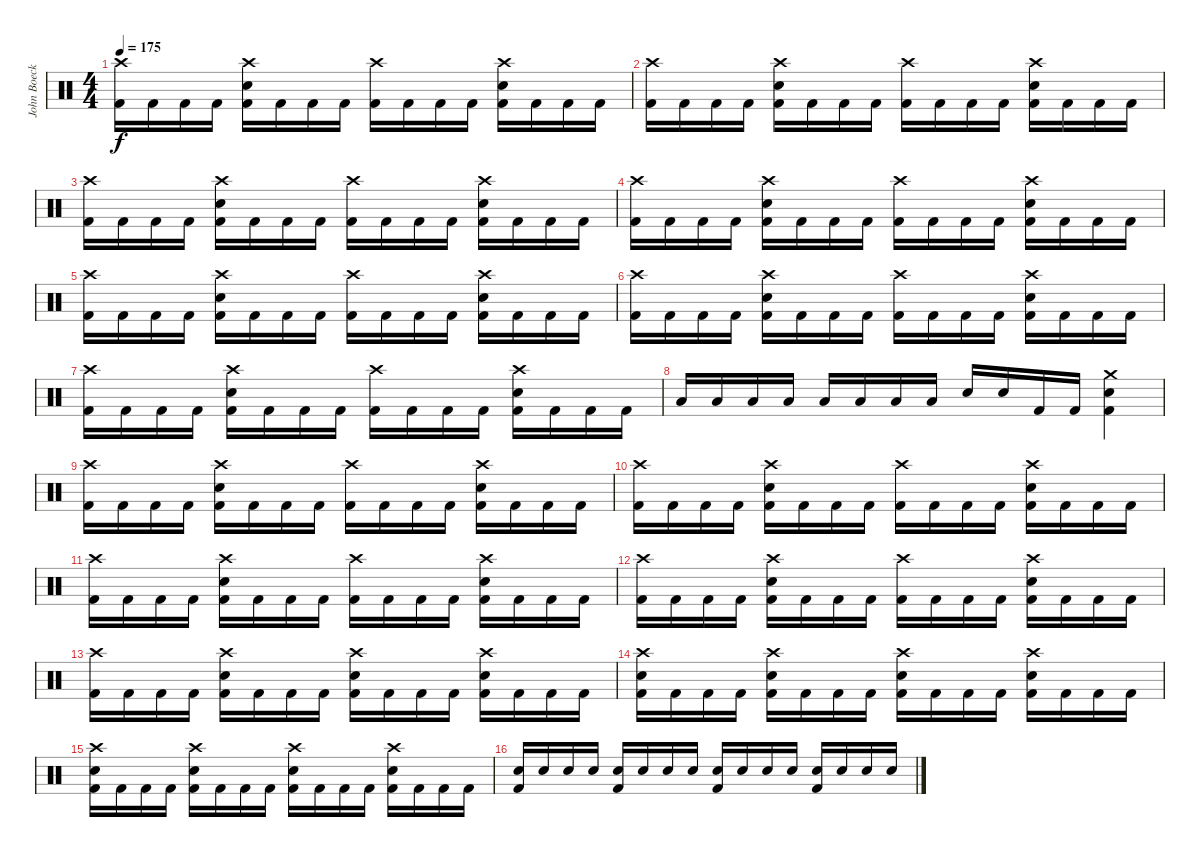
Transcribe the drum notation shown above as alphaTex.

\track ("John Boecklin (Drums)" "John Boeck") {instrument percussion}
\staff {score}
\articulation defaults
\ts (4 4)
\tempo 175
\clef neutral
\ks c
("Crash high (hit)" "Kick (hit) 2").16{dy f} "Kick (hit) 2".16 "Kick (hit) 2".16 "Kick (hit) 2".16 ("Crash high (hit)" "Snare (hit) 2" "Kick (hit) 2").16 "Kick (hit) 2".16 "Kick (hit) 2".16 "Kick (hit) 2".16 ("Crash high (hit)" "Kick (hit) 2").16 "Kick (hit) 2".16 "Kick (hit) 2".16 "Kick (hit) 2".16 ("Crash high (hit)" "Snare (hit) 2" "Kick (hit) 2").16 "Kick (hit) 2".16 "Kick (hit) 2".16 "Kick (hit) 2".16 |
("Crash high (hit)" "Kick (hit) 2").16 "Kick (hit) 2".16 "Kick (hit) 2".16 "Kick (hit) 2".16 ("Crash high (hit)" "Snare (hit) 2" "Kick (hit) 2").16 "Kick (hit) 2".16 "Kick (hit) 2".16 "Kick (hit) 2".16 ("Crash high (hit)" "Kick (hit) 2").16 "Kick (hit) 2".16 "Kick (hit) 2".16 "Kick (hit) 2".16 ("Crash high (hit)" "Snare (hit) 2" "Kick (hit) 2").16 "Kick (hit) 2".16 "Kick (hit) 2".16 "Kick (hit) 2".16 |
("Crash high (hit)" "Kick (hit) 2").16 "Kick (hit) 2".16 "Kick (hit) 2".16 "Kick (hit) 2".16 ("Crash high (hit)" "Snare (hit) 2" "Kick (hit) 2").16 "Kick (hit) 2".16 "Kick (hit) 2".16 "Kick (hit) 2".16 ("Crash high (hit)" "Kick (hit) 2").16 "Kick (hit) 2".16 "Kick (hit) 2".16 "Kick (hit) 2".16 ("Crash high (hit)" "Snare (hit) 2" "Kick (hit) 2").16 "Kick (hit) 2".16 "Kick (hit) 2".16 "Kick (hit) 2".16 |
("Crash high (hit)" "Kick (hit) 2").16 "Kick (hit) 2".16 "Kick (hit) 2".16 "Kick (hit) 2".16 ("Crash high (hit)" "Snare (hit) 2" "Kick (hit) 2").16 "Kick (hit) 2".16 "Kick (hit) 2".16 "Kick (hit) 2".16 ("Crash high (hit)" "Kick (hit) 2").16 "Kick (hit) 2".16 "Kick (hit) 2".16 "Kick (hit) 2".16 ("Crash high (hit)" "Snare (hit) 2" "Kick (hit) 2").16 "Kick (hit) 2".16 "Kick (hit) 2".16 "Kick (hit) 2".16 |
("Crash high (hit)" "Kick (hit) 2").16 "Kick (hit) 2".16 "Kick (hit) 2".16 "Kick (hit) 2".16 ("Crash high (hit)" "Snare (hit) 2" "Kick (hit) 2").16 "Kick (hit) 2".16 "Kick (hit) 2".16 "Kick (hit) 2".16 ("Crash high (hit)" "Kick (hit) 2").16 "Kick (hit) 2".16 "Kick (hit) 2".16 "Kick (hit) 2".16 ("Crash high (hit)" "Snare (hit) 2" "Kick (hit) 2").16 "Kick (hit) 2".16 "Kick (hit) 2".16 "Kick (hit) 2".16 |
("Crash high (hit)" "Kick (hit) 2").16 "Kick (hit) 2".16 "Kick (hit) 2".16 "Kick (hit) 2".16 ("Crash high (hit)" "Snare (hit) 2" "Kick (hit) 2").16 "Kick (hit) 2".16 "Kick (hit) 2".16 "Kick (hit) 2".16 ("Crash high (hit)" "Kick (hit) 2").16 "Kick (hit) 2".16 "Kick (hit) 2".16 "Kick (hit) 2".16 ("Crash high (hit)" "Snare (hit) 2" "Kick (hit) 2").16 "Kick (hit) 2".16 "Kick (hit) 2".16 "Kick (hit) 2".16 |
("Crash high (hit)" "Kick (hit) 2").16 "Kick (hit) 2".16 "Kick (hit) 2".16 "Kick (hit) 2".16 ("Crash high (hit)" "Snare (hit) 2" "Kick (hit) 2").16 "Kick (hit) 2".16 "Kick (hit) 2".16 "Kick (hit) 2".16 ("Crash high (hit)" "Kick (hit) 2").16 "Kick (hit) 2".16 "Kick (hit) 2".16 "Kick (hit) 2".16 ("Crash high (hit)" "Snare (hit) 2" "Kick (hit) 2").16 "Kick (hit) 2".16 "Kick (hit) 2".16 "Kick (hit) 2".16 |
"Low Tom (hit)".16 "Low Tom (hit)".16 "Low Tom (hit)".16 "Low Tom (hit)".16 "Low Tom (hit)".16 "Low Tom (hit)".16 "Low Tom (hit)".16 "Low Tom (hit)".16 "Snare (hit) 2".16 "Snare (hit) 2".16 "Kick (hit) 2".16 "Kick (hit) 2".16 ("Crash medium (hit)" "Kick (hit) 2" "Snare (hit) 2").4 |
("Crash high (hit)" "Kick (hit) 2").16 "Kick (hit) 2".16 "Kick (hit) 2".16 "Kick (hit) 2".16 ("Crash high (hit)" "Snare (hit) 2" "Kick (hit) 2").16 "Kick (hit) 2".16 "Kick (hit) 2".16 "Kick (hit) 2".16 ("Crash high (hit)" "Kick (hit) 2").16 "Kick (hit) 2".16 "Kick (hit) 2".16 "Kick (hit) 2".16 ("Crash high (hit)" "Snare (hit) 2" "Kick (hit) 2").16 "Kick (hit) 2".16 "Kick (hit) 2".16 "Kick (hit) 2".16 |
("Crash high (hit)" "Kick (hit) 2").16 "Kick (hit) 2".16 "Kick (hit) 2".16 "Kick (hit) 2".16 ("Crash high (hit)" "Snare (hit) 2" "Kick (hit) 2").16 "Kick (hit) 2".16 "Kick (hit) 2".16 "Kick (hit) 2".16 ("Crash high (hit)" "Kick (hit) 2").16 "Kick (hit) 2".16 "Kick (hit) 2".16 "Kick (hit) 2".16 ("Crash high (hit)" "Snare (hit) 2" "Kick (hit) 2").16 "Kick (hit) 2".16 "Kick (hit) 2".16 "Kick (hit) 2".16 |
("Crash high (hit)" "Kick (hit) 2").16 "Kick (hit) 2".16 "Kick (hit) 2".16 "Kick (hit) 2".16 ("Crash high (hit)" "Snare (hit) 2" "Kick (hit) 2").16 "Kick (hit) 2".16 "Kick (hit) 2".16 "Kick (hit) 2".16 ("Crash high (hit)" "Kick (hit) 2").16 "Kick (hit) 2".16 "Kick (hit) 2".16 "Kick (hit) 2".16 ("Crash high (hit)" "Snare (hit) 2" "Kick (hit) 2").16 "Kick (hit) 2".16 "Kick (hit) 2".16 "Kick (hit) 2".16 |
("Crash high (hit)" "Kick (hit) 2").16 "Kick (hit) 2".16 "Kick (hit) 2".16 "Kick (hit) 2".16 ("Crash high (hit)" "Snare (hit) 2" "Kick (hit) 2").16 "Kick (hit) 2".16 "Kick (hit) 2".16 "Kick (hit) 2".16 ("Crash high (hit)" "Kick (hit) 2").16 "Kick (hit) 2".16 "Kick (hit) 2".16 "Kick (hit) 2".16 ("Crash high (hit)" "Snare (hit) 2" "Kick (hit) 2").16 "Kick (hit) 2".16 "Kick (hit) 2".16 "Kick (hit) 2".16 |
("Crash high (hit)" "Kick (hit) 2").16 "Kick (hit) 2".16 "Kick (hit) 2".16 "Kick (hit) 2".16 ("Crash high (hit)" "Snare (hit) 2" "Kick (hit) 2").16 "Kick (hit) 2".16 "Kick (hit) 2".16 "Kick (hit) 2".16 ("Crash high (hit)" "Snare (hit) 2" "Kick (hit) 2").16 "Kick (hit) 2".16 "Kick (hit) 2".16 "Kick (hit) 2".16 ("Crash high (hit)" "Snare (hit) 2" "Kick (hit) 2").16 "Kick (hit) 2".16 "Kick (hit) 2".16 "Kick (hit) 2".16 |
("Crash high (hit)" "Snare (hit) 2" "Kick (hit) 2").16 "Kick (hit) 2".16 "Kick (hit) 2".16 "Kick (hit) 2".16 ("Crash high (hit)" "Snare (hit) 2" "Kick (hit) 2").16 "Kick (hit) 2".16 "Kick (hit) 2".16 "Kick (hit) 2".16 ("Crash high (hit)" "Snare (hit) 2" "Kick (hit) 2").16 "Kick (hit) 2".16 "Kick (hit) 2".16 "Kick (hit) 2".16 ("Crash high (hit)" "Snare (hit) 2" "Kick (hit) 2").16 "Kick (hit) 2".16 "Kick (hit) 2".16 "Kick (hit) 2".16 |
("Crash high (hit)" "Snare (hit) 2" "Kick (hit) 2").16 "Kick (hit) 2".16 "Kick (hit) 2".16 "Kick (hit) 2".16 ("Crash high (hit)" "Snare (hit) 2" "Kick (hit) 2").16 "Kick (hit) 2".16 "Kick (hit) 2".16 "Kick (hit) 2".16 ("Crash high (hit)" "Snare (hit) 2" "Kick (hit) 2").16 "Kick (hit) 2".16 "Kick (hit) 2".16 "Kick (hit) 2".16 ("Crash high (hit)" "Snare (hit) 2" "Kick (hit) 2").16 "Kick (hit) 2".16 "Kick (hit) 2".16 "Kick (hit) 2".16 |
("Kick (hit) 2" "Snare (hit) 2").16 "Snare (hit) 2".16 "Snare (hit) 2".16 "Snare (hit) 2".16 ("Kick (hit) 2" "Snare (hit) 2").16 "Snare (hit) 2".16 "Snare (hit) 2".16 "Snare (hit) 2".16 ("Kick (hit) 2" "Snare (hit) 2").16 "Snare (hit) 2".16 "Snare (hit) 2".16 "Snare (hit) 2".16 ("Kick (hit) 2" "Snare (hit) 2").16 "Snare (hit) 2".16 "Snare (hit) 2".16 "Snare (hit) 2".16
